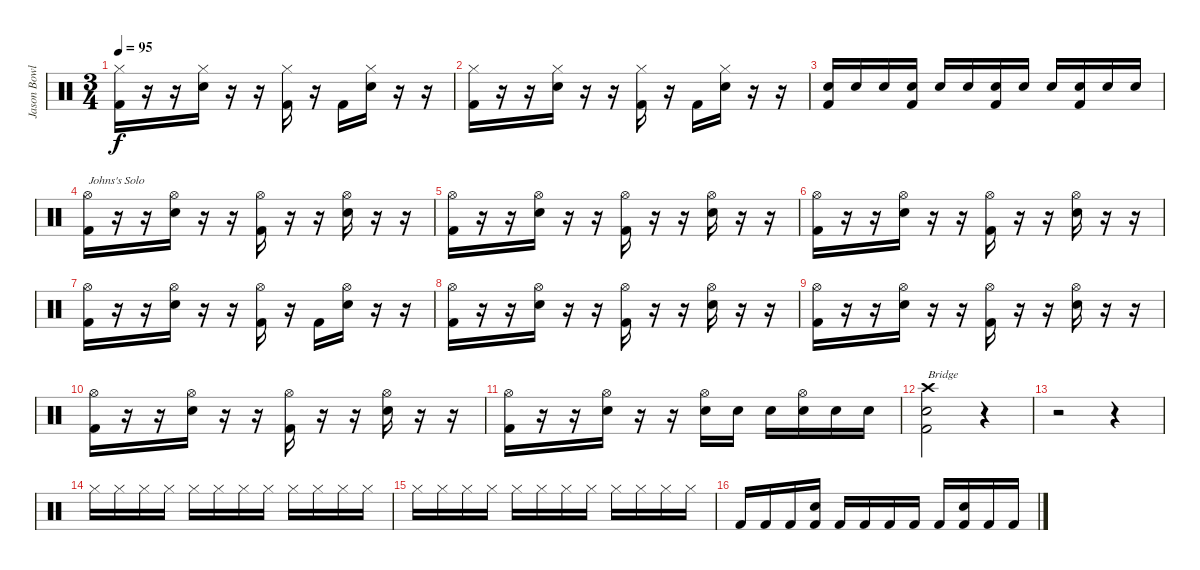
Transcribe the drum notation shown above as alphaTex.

\track ("Jason Bowld" "Jason Bowl") {instrument percussion}
\staff {score}
\articulation defaults
\ts (3 4)
\tempo 95
\clef neutral
\ks c
("Hi-Hat (closed)" "Kick (hit) 2").16{dy f} r.16 r.16 ("Hi-Hat (closed)" "Snare (hit) 2").16 r.16 r.16 ("Hi-Hat (closed)" "Kick (hit) 2").16 r.16 "Kick (hit) 2".16 ("Hi-Hat (closed)" "Snare (hit) 2").16 r.16 r.16 |
("Hi-Hat (closed)" "Kick (hit) 2").16 r.16 r.16 ("Hi-Hat (closed)" "Snare (hit) 2").16 r.16 r.16 ("Hi-Hat (closed)" "Kick (hit) 2").16 r.16 "Kick (hit) 2".16 ("Hi-Hat (closed)" "Snare (hit) 2").16 r.16 r.16 |
("Kick (hit) 2" "Snare (hit) 2").16 "Snare (hit) 2".16 "Snare (hit) 2".16 ("Kick (hit) 2" "Snare (hit) 2").16 "Snare (hit) 2".16 "Snare (hit) 2".16 ("Kick (hit) 2" "Snare (hit) 2").16 "Snare (hit) 2".16 "Snare (hit) 2".16 ("Kick (hit) 2" "Snare (hit) 2").16 "Snare (hit) 2".16 "Snare (hit) 2".16 |
("Hi-Hat (open)" "Kick (hit) 2").16{txt "Johns's Solo"} r.16 r.16 ("Hi-Hat (open)" "Snare (hit) 2").16 r.16 r.16 ("Hi-Hat (open)" "Kick (hit) 2").16 r.16 r.16 ("Hi-Hat (open)" "Snare (hit) 2").16 r.16 r.16 |
("Hi-Hat (open)" "Kick (hit) 2").16 r.16 r.16 ("Hi-Hat (open)" "Snare (hit) 2").16 r.16 r.16 ("Hi-Hat (open)" "Kick (hit) 2").16 r.16 r.16 ("Hi-Hat (open)" "Snare (hit) 2").16 r.16 r.16 |
("Hi-Hat (open)" "Kick (hit) 2").16 r.16 r.16 ("Hi-Hat (open)" "Snare (hit) 2").16 r.16 r.16 ("Hi-Hat (open)" "Kick (hit) 2").16 r.16 r.16 ("Hi-Hat (open)" "Snare (hit) 2").16 r.16 r.16 |
("Hi-Hat (open)" "Kick (hit) 2").16 r.16 r.16 ("Hi-Hat (open)" "Snare (hit) 2").16 r.16 r.16 ("Hi-Hat (open)" "Kick (hit) 2").16 r.16 "Kick (hit) 2".16 ("Hi-Hat (open)" "Snare (hit) 2").16 r.16 r.16 |
("Hi-Hat (open)" "Kick (hit) 2").16 r.16 r.16 ("Hi-Hat (open)" "Snare (hit) 2").16 r.16 r.16 ("Hi-Hat (open)" "Kick (hit) 2").16 r.16 r.16 ("Hi-Hat (open)" "Snare (hit) 2").16 r.16 r.16 |
("Hi-Hat (open)" "Kick (hit) 2").16 r.16 r.16 ("Hi-Hat (open)" "Snare (hit) 2").16 r.16 r.16 ("Hi-Hat (open)" "Kick (hit) 2").16 r.16 r.16 ("Hi-Hat (open)" "Snare (hit) 2").16 r.16 r.16 |
("Hi-Hat (open)" "Kick (hit) 2").16 r.16 r.16 ("Hi-Hat (open)" "Snare (hit) 2").16 r.16 r.16 ("Hi-Hat (open)" "Kick (hit) 2").16 r.16 r.16 ("Hi-Hat (open)" "Snare (hit) 2").16 r.16 r.16 |
("Hi-Hat (open)" "Kick (hit) 2").16 r.16 r.16 ("Hi-Hat (open)" "Snare (hit) 2").16 r.16 r.16 ("Hi-Hat (open)" "Snare (hit) 2").16 "Snare (hit) 2".16 "Snare (hit) 2".16 ("Hi-Hat (open)" "Snare (hit) 2").16 "Snare (hit) 2".16 "Snare (hit) 2".16 |
("Kick (hit) 2" "Snare (hit) 2" "Crash high (hit)").2{txt "Bridge"} r.4 |
r.2 r.4 |
"Hi-Hat (closed)".16 "Hi-Hat (closed)".16 "Hi-Hat (closed)".16 "Hi-Hat (closed)".16 "Hi-Hat (closed)".16 "Hi-Hat (closed)".16 "Hi-Hat (closed)".16 "Hi-Hat (closed)".16 "Hi-Hat (closed)".16 "Hi-Hat (closed)".16 "Hi-Hat (closed)".16 "Hi-Hat (closed)".16 |
"Hi-Hat (closed)".16 "Hi-Hat (closed)".16 "Hi-Hat (closed)".16 "Hi-Hat (closed)".16 "Hi-Hat (closed)".16 "Hi-Hat (closed)".16 "Hi-Hat (closed)".16 "Hi-Hat (closed)".16 "Hi-Hat (closed)".16 "Hi-Hat (closed)".16 "Hi-Hat (closed)".16 "Hi-Hat (closed)".16 |
"Kick (hit) 2".16 "Kick (hit) 2".16 "Kick (hit) 2".16 ("Kick (hit) 2" "Snare (hit) 2").16 "Kick (hit) 2".16 "Kick (hit) 2".16 "Kick (hit) 2".16 "Kick (hit) 2".16 "Kick (hit) 2".16 ("Kick (hit) 2" "Snare (hit) 2").16 "Kick (hit) 2".16 "Kick (hit) 2".16
